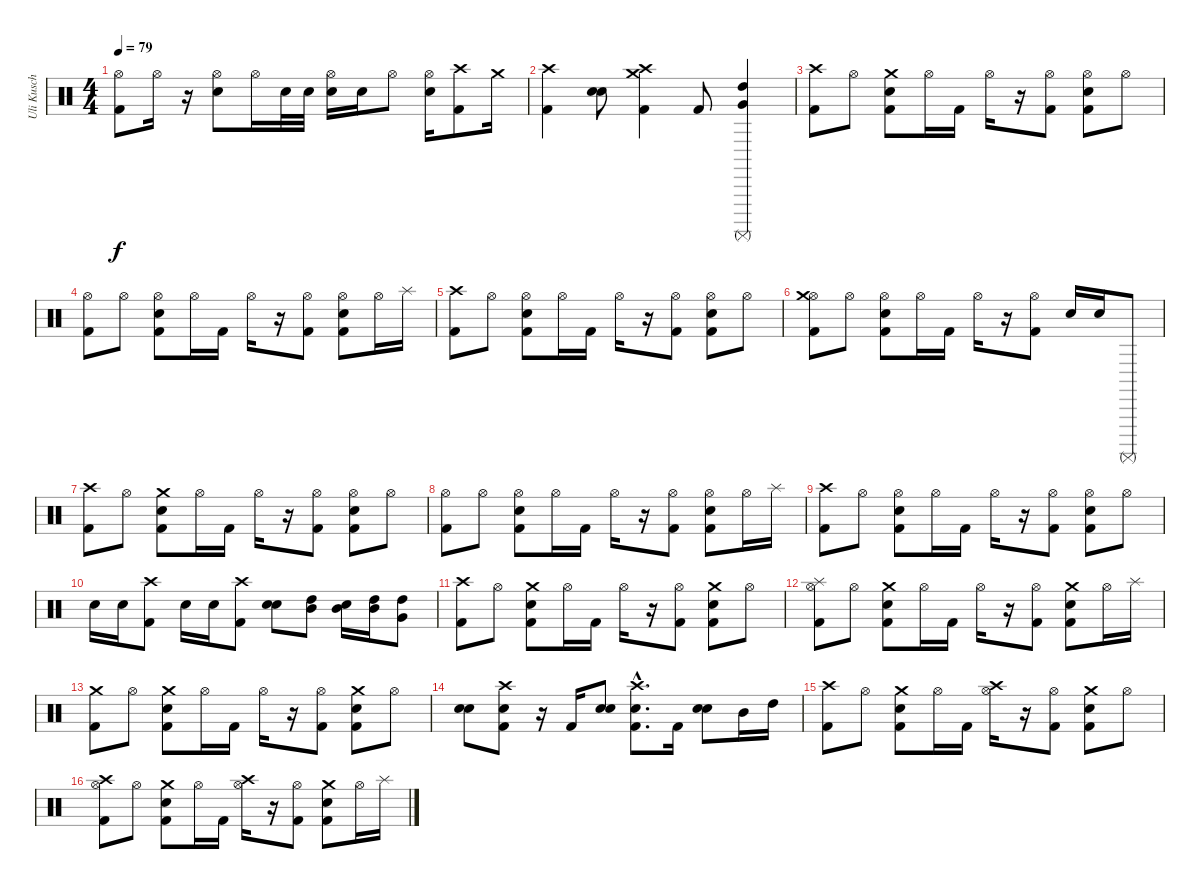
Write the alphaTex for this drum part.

\track ("Uli Kusch" "Uli Kusch") {instrument percussion}
\staff {score}
\articulation defaults
\ts (4 4)
\tempo 79
\clef neutral
\ks c
("Hi-Hat (open)" "Kick (hit) 2").8{dy f} "Hi-Hat (open)".16 r.16 ("Snare (hit) 2" "Hi-Hat (open)").8 "Hi-Hat (open)".16 "Snare (hit) 2".32 "Snare (hit) 2".32 ("Snare (hit) 2" "Hi-Hat (open)").16 "Snare (hit) 2".16 "Hi-Hat (open)".8 ("Snare (hit) 2" "Hi-Hat (open)").16 ("Crash high (hit)" "Kick (hit) 2").8 "Crash medium (hit)".16 |
("Crash high (hit)" "Kick (hit) 2").4 ("Snare (hit) 2" "Snare (hit) 2").8{bd 60} ("Crash high (hit)" "Kick (hit) 2" "Crash medium (hit)").4 "Kick (hit) 2".8 ("Surdo (mute)" "Very Low Tom (hit)" "High Tom (hit)").4 |
("Kick (hit) 2" "Crash high (hit)").8 "Hi-Hat (open)".8 ("Snare (hit) 2" "Kick (hit) 2" "Crash medium (hit)").8 "Hi-Hat (open)".16 "Kick (hit) 2".16 "Hi-Hat (open)".16 r.16 ("Kick (hit) 2" "Hi-Hat (open)").8 ("Kick (hit) 2" "Hi-Hat (open)" "Snare (hit) 2").8 "Hi-Hat (open)".8 |
("Kick (hit) 2" "Hi-Hat (open)").8 "Hi-Hat (open)".8 ("Snare (hit) 2" "Kick (hit) 2" "Hi-Hat (open)").8 "Hi-Hat (open)".16 "Kick (hit) 2".16 "Hi-Hat (open)".16 r.16 ("Kick (hit) 2" "Hi-Hat (open)").8 ("Kick (hit) 2" "Snare (hit) 2" "Hi-Hat (open)").8 "Hi-Hat (open)".16 "Splash (hit)".16 |
("Kick (hit) 2" "Crash high (hit)").8 "Hi-Hat (open)".8 ("Snare (hit) 2" "Kick (hit) 2" "Hi-Hat (open)").8 "Hi-Hat (open)".16 "Kick (hit) 2".16 "Hi-Hat (open)".16 r.16 ("Kick (hit) 2" "Hi-Hat (open)").8 ("Kick (hit) 2" "Snare (hit) 2" "Hi-Hat (open)").8 "Hi-Hat (open)".8 |
("Kick (hit) 2" "Hi-Hat (open)" "Crash medium (hit)").8 "Hi-Hat (open)".8 ("Snare (hit) 2" "Kick (hit) 2" "Hi-Hat (open)").8 "Hi-Hat (open)".16 "Kick (hit) 2".16 "Hi-Hat (open)".16 r.16 ("Kick (hit) 2" "Hi-Hat (open)").8 "Snare (hit) 2".16 "Snare (hit) 2".16 "Surdo (mute)".8 |
("Kick (hit) 2" "Crash high (hit)").8 "Hi-Hat (open)".8 ("Snare (hit) 2" "Kick (hit) 2" "Crash medium (hit)").8 "Hi-Hat (open)".16 "Kick (hit) 2".16 "Hi-Hat (open)".16 r.16 ("Kick (hit) 2" "Hi-Hat (open)").8 ("Kick (hit) 2" "Hi-Hat (open)" "Snare (hit) 2").8 "Hi-Hat (open)".8 |
("Kick (hit) 2" "Hi-Hat (open)").8 "Hi-Hat (open)".8 ("Snare (hit) 2" "Kick (hit) 2" "Hi-Hat (open)").8 "Hi-Hat (open)".16 "Kick (hit) 2".16 "Hi-Hat (open)".16 r.16 ("Kick (hit) 2" "Hi-Hat (open)").8 ("Kick (hit) 2" "Snare (hit) 2" "Hi-Hat (open)").8 "Hi-Hat (open)".16 "Splash (hit)".16 |
("Kick (hit) 2" "Crash high (hit)").8 "Hi-Hat (open)".8 ("Snare (hit) 2" "Kick (hit) 2" "Hi-Hat (open)").8 "Hi-Hat (open)".16 "Kick (hit) 2".16 "Hi-Hat (open)".16 r.16 ("Kick (hit) 2" "Hi-Hat (open)").8 ("Kick (hit) 2" "Snare (hit) 2" "Hi-Hat (open)").8 "Hi-Hat (open)".8 |
"Snare (hit) 2".16 "Snare (hit) 2".16 ("Crash high (hit)" "Kick (hit) 2").8 "Snare (hit) 2".16 "Snare (hit) 2".16 ("Crash high (hit)" "Kick (hit) 2").8 ("Snare (hit) 2" "Snare (hit) 2").8{bd 60} ("Mid Tom (hit)" "High Tom (hit)").8 ("Mid Tom (hit)" "Snare (hit) 2").16 ("High Tom (hit)" "Mid Tom (hit)").16 ("Very Low Tom (hit)" "High Tom (hit)").8 |
("Kick (hit) 2" "Crash high (hit)").8 "Hi-Hat (open)".8 ("Snare (hit) 2" "Kick (hit) 2" "Crash medium (hit)").8 "Hi-Hat (open)".16 "Kick (hit) 2".16 "Hi-Hat (open)".16 r.16 ("Kick (hit) 2" "Hi-Hat (open)").8 ("Kick (hit) 2" "Snare (hit) 2" "Crash medium (hit)").8 "Hi-Hat (open)".8 |
("Kick (hit) 2" "Hi-Hat (open)" "Splash (hit)").8 "Hi-Hat (open)".8 ("Snare (hit) 2" "Kick (hit) 2" "Crash medium (hit)").8 "Hi-Hat (open)".16 "Kick (hit) 2".16 "Hi-Hat (open)".16 r.16 ("Kick (hit) 2" "Hi-Hat (open)").8 ("Kick (hit) 2" "Snare (hit) 2" "Crash medium (hit)").8 "Hi-Hat (open)".16 "Splash (hit)".16 |
("Kick (hit) 2" "Crash medium (hit)").8 "Hi-Hat (open)".8 ("Snare (hit) 2" "Kick (hit) 2" "Crash medium (hit)").8 "Hi-Hat (open)".16 "Kick (hit) 2".16 "Hi-Hat (open)".16 r.16 ("Kick (hit) 2" "Hi-Hat (open)").8 ("Kick (hit) 2" "Snare (hit) 2" "Crash medium (hit)").8 "Hi-Hat (open)".8 |
("Snare (hit) 2" "Snare (hit) 2").8{bd 240} ("Kick (hit) 2" "Snare (hit) 2" "Crash high (hit)").8 r.16 "Kick (hit) 2".16 ("Snare (hit) 2" "Snare (hit) 2").8{bd 240} ("Crash high (hit)"{hac} "Snare (hit) 2"{hac} "Kick (hit) 2"{hac}).8{d} "Kick (hit) 2".16 ("Snare (hit) 2" "Snare (hit) 2").8{bd 60} "Mid Tom (hit)".16 "High Tom (hit)".16 |
("Kick (hit) 2" "Crash high (hit)").8 "Hi-Hat (open)".8 ("Snare (hit) 2" "Kick (hit) 2" "Crash medium (hit)").8 "Hi-Hat (open)".16 "Kick (hit) 2".16 ("Hi-Hat (open)" "Crash high (hit)").16 r.16 ("Kick (hit) 2" "Hi-Hat (open)").8 ("Kick (hit) 2" "Snare (hit) 2" "Crash medium (hit)").8 "Hi-Hat (open)".8 |
("Kick (hit) 2" "Hi-Hat (open)" "Crash high (hit)").8 "Hi-Hat (open)".8 ("Snare (hit) 2" "Kick (hit) 2" "Crash medium (hit)").8 "Hi-Hat (open)".16 "Kick (hit) 2".16 ("Hi-Hat (open)" "Crash high (hit)").16 r.16 ("Kick (hit) 2" "Hi-Hat (open)").8 ("Kick (hit) 2" "Snare (hit) 2" "Crash medium (hit)").8 "Hi-Hat (open)".16 "Splash (hit)".16
